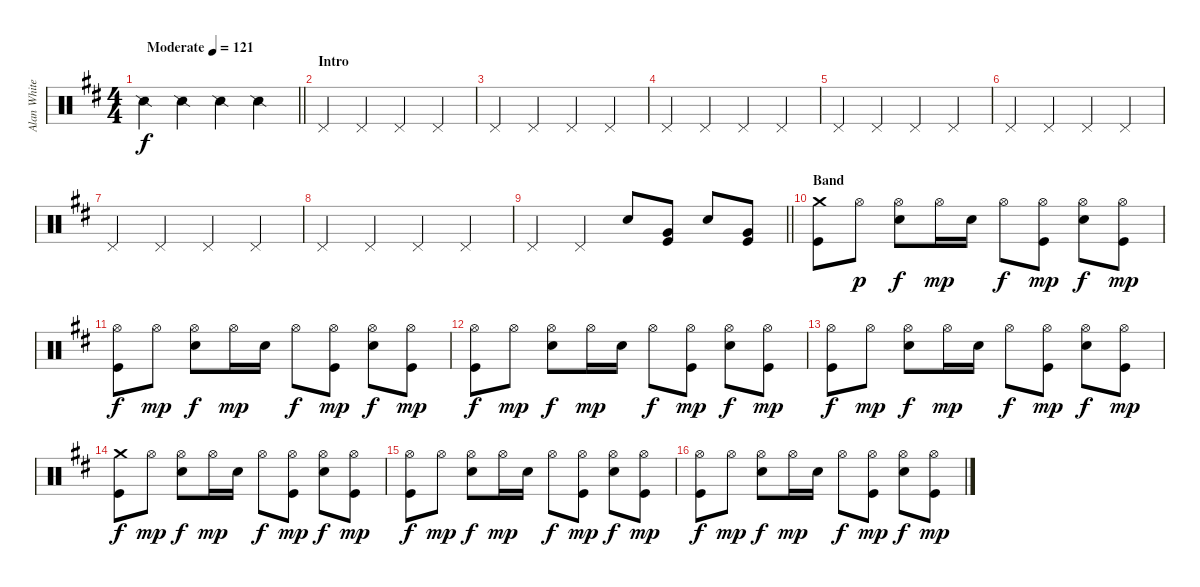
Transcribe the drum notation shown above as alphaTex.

\track ("Alan White" "Alan White") {instrument percussion}
\staff {score}
\articulation defaults
\ts (4 4)
\tempo (121 "Moderate")
\clef neutral
\barLineRight lightlight
\ks d "Snare (side stick) 2".4{dy f} "Snare (side stick) 2".4 "Snare (side stick) 2".4 "Snare (side stick) 2".4
|
\section ("" "Intro")
"Pedal Hi-Hat (hit)".4 "Pedal Hi-Hat (hit)".4 "Pedal Hi-Hat (hit)".4 "Pedal Hi-Hat (hit)".4 |
"Pedal Hi-Hat (hit)".4 "Pedal Hi-Hat (hit)".4 "Pedal Hi-Hat (hit)".4 "Pedal Hi-Hat (hit)".4 |
"Pedal Hi-Hat (hit)".4 "Pedal Hi-Hat (hit)".4 "Pedal Hi-Hat (hit)".4 "Pedal Hi-Hat (hit)".4 |
"Pedal Hi-Hat (hit)".4 "Pedal Hi-Hat (hit)".4 "Pedal Hi-Hat (hit)".4 "Pedal Hi-Hat (hit)".4 |
"Pedal Hi-Hat (hit)".4 "Pedal Hi-Hat (hit)".4 "Pedal Hi-Hat (hit)".4 "Pedal Hi-Hat (hit)".4 |
"Pedal Hi-Hat (hit)".4 "Pedal Hi-Hat (hit)".4 "Pedal Hi-Hat (hit)".4 "Pedal Hi-Hat (hit)".4 |
"Pedal Hi-Hat (hit)".4 "Pedal Hi-Hat (hit)".4 "Pedal Hi-Hat (hit)".4 "Pedal Hi-Hat (hit)".4 |
\barLineRight lightlight "Pedal Hi-Hat (hit)".4 "Pedal Hi-Hat (hit)".4 "Electric Snare (hit)".8
("Very Low Tom (hit)" "Kick (hit)").8 "Electric Snare (hit)".8 ("Very Low Tom (hit)" "Kick (hit)").8 |
\section ("" "Band")
("Crash medium (hit)" "Kick (hit)").8 "Hi-Hat (open)".8{dy p} ("Hi-Hat (open)" "Electric Snare (hit)").8{dy f} "Hi-Hat (open)".16{dy mp} "Electric Snare (hit)".16 "Hi-Hat (open)".8{dy f} ("Hi-Hat (open)" "Kick (hit)").8{dy mp} ("Hi-Hat (open)" "Electric Snare (hit)").8{dy f} ("Hi-Hat (open)" "Kick (hit)").8{dy mp} |
("Hi-Hat (open)" "Kick (hit)").8{dy f} "Hi-Hat (open)".8{dy mp} ("Hi-Hat (open)" "Electric Snare (hit)").8{dy f} "Hi-Hat (open)".16{dy mp} "Electric Snare (hit)".16 "Hi-Hat (open)".8{dy f} ("Hi-Hat (open)" "Kick (hit)").8{dy mp} ("Hi-Hat (open)" "Electric Snare (hit)").8{dy f} ("Hi-Hat (open)" "Kick (hit)").8{dy mp} |
("Hi-Hat (open)" "Kick (hit)").8{dy f} "Hi-Hat (open)".8{dy mp} ("Hi-Hat (open)" "Electric Snare (hit)").8{dy f} "Hi-Hat (open)".16{dy mp} "Electric Snare (hit)".16 "Hi-Hat (open)".8{dy f} ("Hi-Hat (open)" "Kick (hit)").8{dy mp} ("Hi-Hat (open)" "Electric Snare (hit)").8{dy f} ("Hi-Hat (open)" "Kick (hit)").8{dy mp} |
("Hi-Hat (open)" "Kick (hit)").8{dy f} "Hi-Hat (open)".8{dy mp} ("Hi-Hat (open)" "Electric Snare (hit)").8{dy f} "Hi-Hat (open)".16{dy mp} "Electric Snare (hit)".16 "Hi-Hat (open)".8{dy f} ("Hi-Hat (open)" "Kick (hit)").8{dy mp} ("Hi-Hat (open)" "Electric Snare (hit)").8{dy f} ("Hi-Hat (open)" "Kick (hit)").8{dy mp} |
("Crash medium (hit)" "Kick (hit)").8{dy f} "Hi-Hat (open)".8{dy mp} ("Hi-Hat (open)" "Electric Snare (hit)").8{dy f} "Hi-Hat (open)".16{dy mp} "Electric Snare (hit)".16 "Hi-Hat (open)".8{dy f} ("Hi-Hat (open)" "Kick (hit)").8{dy mp} ("Hi-Hat (open)" "Electric Snare (hit)").8{dy f} ("Hi-Hat (open)" "Kick (hit)").8{dy mp} |
("Hi-Hat (open)" "Kick (hit)").8{dy f} "Hi-Hat (open)".8{dy mp} ("Hi-Hat (open)" "Electric Snare (hit)").8{dy f} "Hi-Hat (open)".16{dy mp} "Electric Snare (hit)".16 "Hi-Hat (open)".8{dy f} ("Hi-Hat (open)" "Kick (hit)").8{dy mp} ("Hi-Hat (open)" "Electric Snare (hit)").8{dy f} ("Hi-Hat (open)" "Kick (hit)").8{dy mp} |
("Hi-Hat (open)" "Kick (hit)").8{dy f} "Hi-Hat (open)".8{dy mp} ("Hi-Hat (open)" "Electric Snare (hit)").8{dy f} "Hi-Hat (open)".16{dy mp} "Electric Snare (hit)".16 "Hi-Hat (open)".8{dy f} ("Hi-Hat (open)" "Kick (hit)").8{dy mp} ("Hi-Hat (open)" "Electric Snare (hit)").8{dy f} ("Hi-Hat (open)" "Kick (hit)").8{dy mp}
